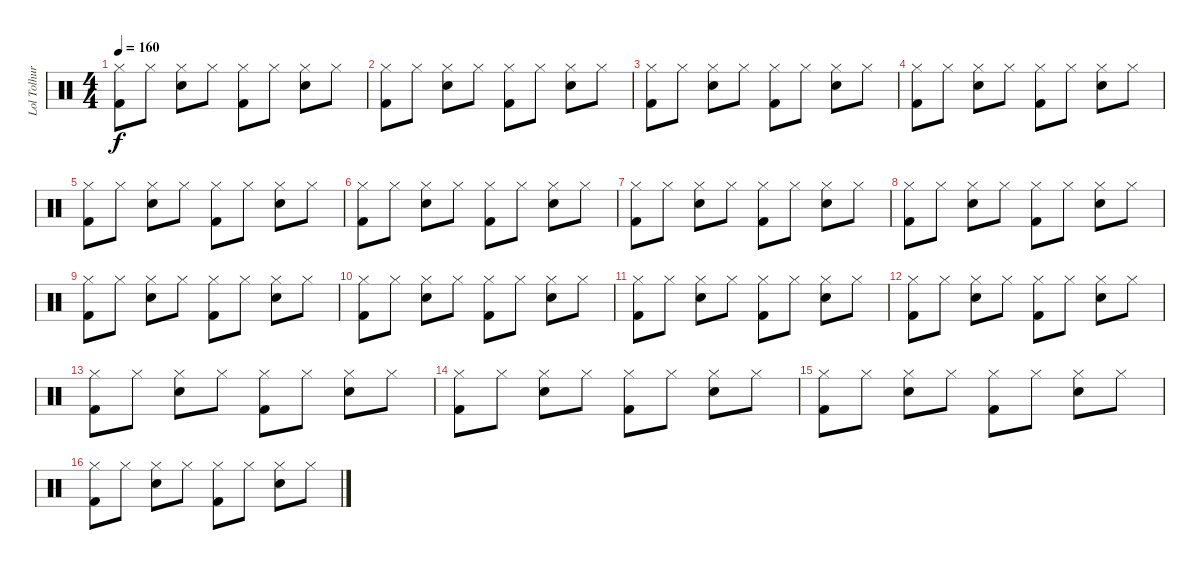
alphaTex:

\track ("Lol Tolhurst drums" "Lol Tolhur") {instrument percussion}
\staff {score}
\articulation defaults
\ts (4 4)
\section ("" "")
\tempo 160
\clef neutral
\ks c
("Hi-Hat (closed)" "Kick (hit) 2").8{dy f} "Hi-Hat (closed)".8 ("Hi-Hat (closed)" "Snare (hit) 2").8 "Hi-Hat (closed)".8 ("Hi-Hat (closed)" "Kick (hit) 2").8 "Hi-Hat (closed)".8 ("Hi-Hat (closed)" "Snare (hit) 2").8 "Hi-Hat (closed)".8 |
("Hi-Hat (closed)" "Kick (hit) 2").8 "Hi-Hat (closed)".8 ("Hi-Hat (closed)" "Snare (hit) 2").8 "Hi-Hat (closed)".8 ("Hi-Hat (closed)" "Kick (hit) 2").8 "Hi-Hat (closed)".8 ("Hi-Hat (closed)" "Snare (hit) 2").8 "Hi-Hat (closed)".8 |
("Hi-Hat (closed)" "Kick (hit) 2").8 "Hi-Hat (closed)".8 ("Hi-Hat (closed)" "Snare (hit) 2").8 "Hi-Hat (closed)".8 ("Hi-Hat (closed)" "Kick (hit) 2").8 "Hi-Hat (closed)".8 ("Hi-Hat (closed)" "Snare (hit) 2").8 "Hi-Hat (closed)".8 |
("Hi-Hat (closed)" "Kick (hit) 2").8 "Hi-Hat (closed)".8 ("Hi-Hat (closed)" "Snare (hit) 2").8 "Hi-Hat (closed)".8 ("Hi-Hat (closed)" "Kick (hit) 2").8 "Hi-Hat (closed)".8 ("Hi-Hat (closed)" "Snare (hit) 2").8 "Hi-Hat (closed)".8 |
\section ("" "")
("Hi-Hat (closed)" "Kick (hit) 2").8 "Hi-Hat (closed)".8 ("Hi-Hat (closed)" "Snare (hit) 2").8 "Hi-Hat (closed)".8 ("Hi-Hat (closed)" "Kick (hit) 2").8 "Hi-Hat (closed)".8 ("Hi-Hat (closed)" "Snare (hit) 2").8 "Hi-Hat (closed)".8 |
("Hi-Hat (closed)" "Kick (hit) 2").8 "Hi-Hat (closed)".8 ("Hi-Hat (closed)" "Snare (hit) 2").8 "Hi-Hat (closed)".8 ("Hi-Hat (closed)" "Kick (hit) 2").8 "Hi-Hat (closed)".8 ("Hi-Hat (closed)" "Snare (hit) 2").8 "Hi-Hat (closed)".8 |
("Hi-Hat (closed)" "Kick (hit) 2").8 "Hi-Hat (closed)".8 ("Hi-Hat (closed)" "Snare (hit) 2").8 "Hi-Hat (closed)".8 ("Hi-Hat (closed)" "Kick (hit) 2").8 "Hi-Hat (closed)".8 ("Hi-Hat (closed)" "Snare (hit) 2").8 "Hi-Hat (closed)".8 |
("Hi-Hat (closed)" "Kick (hit) 2").8 "Hi-Hat (closed)".8 ("Hi-Hat (closed)" "Snare (hit) 2").8 "Hi-Hat (closed)".8 ("Hi-Hat (closed)" "Kick (hit) 2").8 "Hi-Hat (closed)".8 ("Hi-Hat (closed)" "Snare (hit) 2").8 "Hi-Hat (closed)".8 |
\section ("" "")
("Hi-Hat (closed)" "Kick (hit) 2").8 "Hi-Hat (closed)".8 ("Hi-Hat (closed)" "Snare (hit) 2").8 "Hi-Hat (closed)".8 ("Hi-Hat (closed)" "Kick (hit) 2").8 "Hi-Hat (closed)".8 ("Hi-Hat (closed)" "Snare (hit) 2").8 "Hi-Hat (closed)".8 |
("Hi-Hat (closed)" "Kick (hit) 2").8 "Hi-Hat (closed)".8 ("Hi-Hat (closed)" "Snare (hit) 2").8 "Hi-Hat (closed)".8 ("Hi-Hat (closed)" "Kick (hit) 2").8 "Hi-Hat (closed)".8 ("Hi-Hat (closed)" "Snare (hit) 2").8 "Hi-Hat (closed)".8 |
("Hi-Hat (closed)" "Kick (hit) 2").8 "Hi-Hat (closed)".8 ("Hi-Hat (closed)" "Snare (hit) 2").8 "Hi-Hat (closed)".8 ("Hi-Hat (closed)" "Kick (hit) 2").8 "Hi-Hat (closed)".8 ("Hi-Hat (closed)" "Snare (hit) 2").8 "Hi-Hat (closed)".8 |
("Hi-Hat (closed)" "Kick (hit) 2").8 "Hi-Hat (closed)".8 ("Hi-Hat (closed)" "Snare (hit) 2").8 "Hi-Hat (closed)".8 ("Hi-Hat (closed)" "Kick (hit) 2").8 "Hi-Hat (closed)".8 ("Hi-Hat (closed)" "Snare (hit) 2").8 "Hi-Hat (closed)".8 |
\section ("" "")
("Hi-Hat (closed)" "Kick (hit) 2").8 "Hi-Hat (closed)".8 ("Hi-Hat (closed)" "Snare (hit) 2").8 "Hi-Hat (closed)".8 ("Hi-Hat (closed)" "Kick (hit) 2").8 "Hi-Hat (closed)".8 ("Hi-Hat (closed)" "Snare (hit) 2").8 "Hi-Hat (closed)".8 |
("Hi-Hat (closed)" "Kick (hit) 2").8 "Hi-Hat (closed)".8 ("Hi-Hat (closed)" "Snare (hit) 2").8 "Hi-Hat (closed)".8 ("Hi-Hat (closed)" "Kick (hit) 2").8 "Hi-Hat (closed)".8 ("Hi-Hat (closed)" "Snare (hit) 2").8 "Hi-Hat (closed)".8 |
("Hi-Hat (closed)" "Kick (hit) 2").8 "Hi-Hat (closed)".8 ("Hi-Hat (closed)" "Snare (hit) 2").8 "Hi-Hat (closed)".8 ("Hi-Hat (closed)" "Kick (hit) 2").8 "Hi-Hat (closed)".8 ("Hi-Hat (closed)" "Snare (hit) 2").8 "Hi-Hat (closed)".8 |
("Hi-Hat (closed)" "Kick (hit) 2").8 "Hi-Hat (closed)".8 ("Hi-Hat (closed)" "Snare (hit) 2").8 "Hi-Hat (closed)".8 ("Hi-Hat (closed)" "Kick (hit) 2").8 "Hi-Hat (closed)".8 ("Hi-Hat (closed)" "Snare (hit) 2").8 "Hi-Hat (closed)".8
